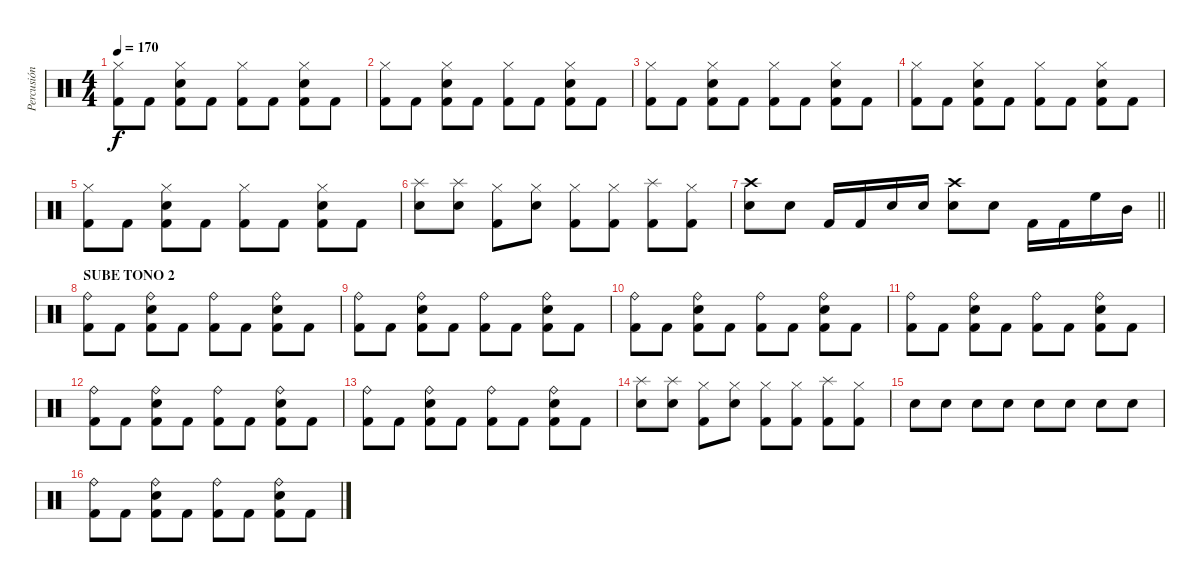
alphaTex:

\track ("Percusión" "Percusión") {instrument percussion}
\staff {score}
\articulation defaults
\ts (4 4)
\tempo 170
\clef neutral
\ks c
("Hi-Hat (closed)" "Kick (hit) 2").8{dy f} "Kick (hit) 2".8 ("Hi-Hat (closed)" "Electric Snare (hit)" "Kick (hit) 2").8 "Kick (hit) 2".8 ("Hi-Hat (closed)" "Kick (hit) 2").8 "Kick (hit) 2".8 ("Hi-Hat (closed)" "Electric Snare (hit)" "Kick (hit) 2").8 "Kick (hit) 2".8 |
("Hi-Hat (closed)" "Kick (hit) 2").8 "Kick (hit) 2".8 ("Hi-Hat (closed)" "Electric Snare (hit)" "Kick (hit) 2").8 "Kick (hit) 2".8 ("Hi-Hat (closed)" "Kick (hit) 2").8 "Kick (hit) 2".8 ("Hi-Hat (closed)" "Electric Snare (hit)" "Kick (hit) 2").8 "Kick (hit) 2".8 |
("Hi-Hat (closed)" "Kick (hit) 2").8 "Kick (hit) 2".8 ("Hi-Hat (closed)" "Electric Snare (hit)" "Kick (hit) 2").8 "Kick (hit) 2".8 ("Hi-Hat (closed)" "Kick (hit) 2").8 "Kick (hit) 2".8 ("Hi-Hat (closed)" "Electric Snare (hit)" "Kick (hit) 2").8 "Kick (hit) 2".8 |
("Hi-Hat (closed)" "Kick (hit) 2").8 "Kick (hit) 2".8 ("Hi-Hat (closed)" "Electric Snare (hit)" "Kick (hit) 2").8 "Kick (hit) 2".8 ("Hi-Hat (closed)" "Kick (hit) 2").8 "Kick (hit) 2".8 ("Hi-Hat (closed)" "Electric Snare (hit)" "Kick (hit) 2").8 "Kick (hit) 2".8 |
("Hi-Hat (closed)" "Kick (hit) 2").8 "Kick (hit) 2".8 ("Hi-Hat (closed)" "Electric Snare (hit)" "Kick (hit) 2").8 "Kick (hit) 2".8 ("Hi-Hat (closed)" "Kick (hit) 2").8 "Kick (hit) 2".8 ("Hi-Hat (closed)" "Electric Snare (hit)" "Kick (hit) 2").8 "Kick (hit) 2".8 |
("Splash (hit)" "Electric Snare (hit)").8 ("Splash (hit)" "Electric Snare (hit)").8 ("Hi-Hat (closed)" "Kick (hit) 2").8 ("Hi-Hat (closed)" "Electric Snare (hit)").8 ("Hi-Hat (closed)" "Kick (hit) 2").8 ("Hi-Hat (closed)" "Kick (hit) 2").8 ("Splash (hit)" "Kick (hit) 2").8 ("Hi-Hat (closed)" "Kick (hit) 2").8 |
\barLineRight lightlight
("Crash high (hit)" "Electric Snare (hit)").8 "Electric Snare (hit)".8 "Kick (hit) 2".16 "Kick (hit) 2".16 "Electric Snare (hit)".16 "Electric Snare (hit)".16 ("Crash high (hit)" "Electric Snare (hit)").8 "Electric Snare (hit)".8 "Kick (hit) 2".16 "Kick (hit) 2".16 "High Floor Tom (hit)".16 "Mid Tom (hit)".16 |
\section ("" "SUBE TONO 2")
("Ride (bell)" "Kick (hit) 2").8 "Kick (hit) 2".8 ("Ride (bell)" "Electric Snare (hit)" "Kick (hit) 2").8 "Kick (hit) 2".8 ("Ride (bell)" "Kick (hit) 2").8 "Kick (hit) 2".8 ("Ride (bell)" "Electric Snare (hit)" "Kick (hit) 2").8 "Kick (hit) 2".8 |
("Ride (bell)" "Kick (hit) 2").8 "Kick (hit) 2".8 ("Ride (bell)" "Electric Snare (hit)" "Kick (hit) 2").8 "Kick (hit) 2".8 ("Ride (bell)" "Kick (hit) 2").8 "Kick (hit) 2".8 ("Ride (bell)" "Electric Snare (hit)" "Kick (hit) 2").8 "Kick (hit) 2".8 |
("Ride (bell)" "Kick (hit) 2").8 "Kick (hit) 2".8 ("Ride (bell)" "Electric Snare (hit)" "Kick (hit) 2").8 "Kick (hit) 2".8 ("Ride (bell)" "Kick (hit) 2").8 "Kick (hit) 2".8 ("Ride (bell)" "Electric Snare (hit)" "Kick (hit) 2").8 "Kick (hit) 2".8 |
("Ride (bell)" "Kick (hit) 2").8 "Kick (hit) 2".8 ("Ride (bell)" "Electric Snare (hit)" "Kick (hit) 2").8 "Kick (hit) 2".8 ("Ride (bell)" "Kick (hit) 2").8 "Kick (hit) 2".8 ("Ride (bell)" "Electric Snare (hit)" "Kick (hit) 2").8 "Kick (hit) 2".8 |
("Ride (bell)" "Kick (hit) 2").8 "Kick (hit) 2".8 ("Ride (bell)" "Electric Snare (hit)" "Kick (hit) 2").8 "Kick (hit) 2".8 ("Ride (bell)" "Kick (hit) 2").8 "Kick (hit) 2".8 ("Ride (bell)" "Electric Snare (hit)" "Kick (hit) 2").8 "Kick (hit) 2".8 |
("Ride (bell)" "Kick (hit) 2").8 "Kick (hit) 2".8 ("Ride (bell)" "Electric Snare (hit)" "Kick (hit) 2").8 "Kick (hit) 2".8 ("Ride (bell)" "Kick (hit) 2").8 "Kick (hit) 2".8 ("Ride (bell)" "Electric Snare (hit)" "Kick (hit) 2").8 "Kick (hit) 2".8 |
("Splash (hit)" "Electric Snare (hit)").8 ("Splash (hit)" "Electric Snare (hit)").8 ("Hi-Hat (closed)" "Kick (hit) 2").8 ("Hi-Hat (closed)" "Electric Snare (hit)").8 ("Hi-Hat (closed)" "Kick (hit) 2").8 ("Hi-Hat (closed)" "Kick (hit) 2").8 ("Splash (hit)" "Kick (hit) 2").8 ("Hi-Hat (closed)" "Kick (hit) 2").8 |
"Electric Snare (hit)".8 "Electric Snare (hit)".8 "Electric Snare (hit)".8 "Electric Snare (hit)".8 "Electric Snare (hit)".8 "Electric Snare (hit)".8 "Electric Snare (hit)".8 "Electric Snare (hit)".8 |
("Ride (bell)" "Kick (hit) 2").8 "Kick (hit) 2".8 ("Ride (bell)" "Electric Snare (hit)" "Kick (hit) 2").8 "Kick (hit) 2".8 ("Ride (bell)" "Kick (hit) 2").8 "Kick (hit) 2".8 ("Ride (bell)" "Electric Snare (hit)" "Kick (hit) 2").8 "Kick (hit) 2".8
